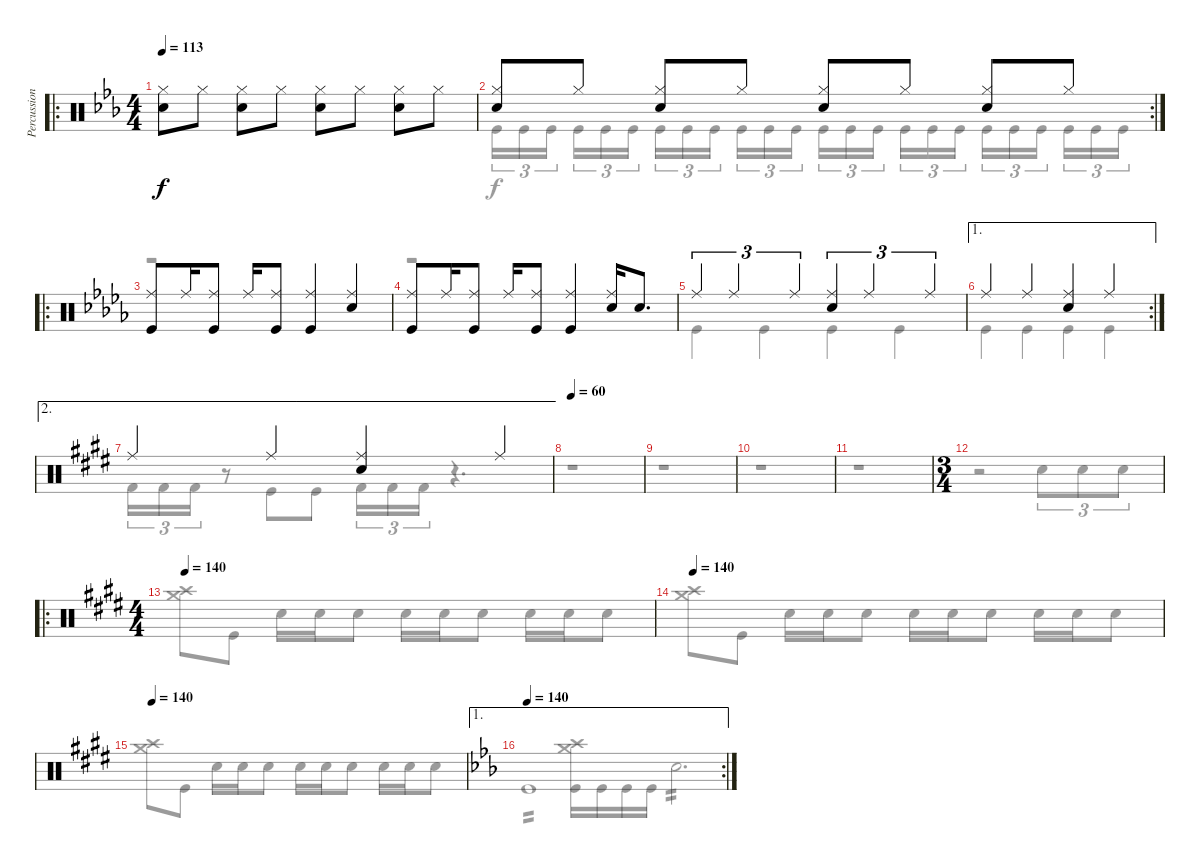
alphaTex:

\track ("Percussion" "Percussion") {instrument percussion}
\staff {score}
\articulation defaults
\voice
\ro
\ts (4 4)
\tempo 113
\clef neutral
\ks cminor
("Hi-Hat (closed)" "Electric Snare (hit)").8{dy f} "Hi-Hat (closed)".8 ("Hi-Hat (closed)" "Electric Snare (hit)").8 "Hi-Hat (closed)".8 ("Hi-Hat (closed)" "Electric Snare (hit)").8 "Hi-Hat (closed)".8 ("Hi-Hat (closed)" "Electric Snare (hit)").8 "Hi-Hat (closed)".8 |
\rc 2
("Hi-Hat (closed)" "Electric Snare (hit)").8 "Hi-Hat (closed)".8 ("Hi-Hat (closed)" "Electric Snare (hit)").8 "Hi-Hat (closed)".8 ("Hi-Hat (closed)" "Electric Snare (hit)").8 "Hi-Hat (closed)".8 ("Hi-Hat (closed)" "Electric Snare (hit)").8 "Hi-Hat (closed)".8 |
\ro
\ks db
("Ride (middle)" "Kick (hit)").8 "Ride (middle)".16 ("Ride (middle)" "Kick (hit)").8 "Ride (middle)".16 ("Ride (middle)" "Kick (hit)").8 ("Ride (middle)" "Kick (hit)").4 ("Ride (middle)" "Electric Snare (hit)").4 |
("Ride (middle)" "Kick (hit)").8 "Ride (middle)".16 ("Ride (middle)" "Kick (hit)").8 "Ride (middle)".16 ("Ride (middle)" "Kick (hit)").8 ("Ride (middle)" "Kick (hit)").4 ("Ride (middle)" "Electric Snare (hit)").16 "Electric Snare (hit)".8{d} |
"Ride (middle)".4{tu (3 2)} "Ride (middle)".4{tu (3 2)} "Ride (middle)".4{tu (3 2)} ("Ride (middle)" "Snare (hit) 2").4{tu (3 2)} "Ride (middle)".4{tu (3 2)} "Ride (middle)".4{tu (3 2)} |
\ae 1
\rc 2 "Ride (middle)".4 "Ride (middle)".4
("Ride (middle)" "Snare (hit) 2").4 "Ride (middle)".4 |
\ae 2
\ks c#minor "Ride (middle)".4 "Ride (middle)".4
("Ride (middle)" "Snare (hit) 2").4 "Ride (middle)".4 |
\tempo 60
|
|
|
|
\ts (3 4)
|
\ro
\ts (4 4)
\tempo 140
|
\tempo 140
|
\tempo 140
|
\ae 1
\rc 2
\tempo 140
\voice
\clef neutral
\ottava regular
\simile none
\ks cminor "Kick (hit)".1{tp 2 dy f}
|
"Kick (hit)".16{tu (3 2)} "Kick (hit)".16{tu (3 2)} "Kick (hit)".16{tu (3 2) beam splitsecondary} "Kick (hit)".16{tu (3 2)} "Kick (hit)".16{tu (3 2)} "Kick (hit)".16{tu (3 2)} "Kick (hit)".16{tu (3 2)} "Kick (hit)".16{tu (3 2)} "Kick (hit)".16{tu (3 2) beam splitsecondary} "Kick (hit)".16{tu (3 2)} "Kick (hit)".16{tu (3 2)} "Kick (hit)".16{tu (3 2)} "Kick (hit)".16{tu (3 2)} "Kick (hit)".16{tu (3 2)} "Kick (hit)".16{tu (3 2) beam splitsecondary} "Kick (hit)".16{tu (3 2)} "Kick (hit)".16{tu (3 2)} "Kick (hit)".16{tu (3 2)} "Kick (hit)".16{tu (3 2)} "Kick (hit)".16{tu (3 2)} "Kick (hit)".16{tu (3 2) beam splitsecondary} "Kick (hit)".16{tu (3 2)} "Kick (hit)".16{tu (3 2)} "Kick (hit)".16{tu (3 2)} |
\ks db
r.1 |
r.1 |
"Kick (hit)".4 "Kick (hit)".4 "Kick (hit)".4 "Kick (hit)".4 |
"Kick (hit)".4 "Kick (hit)".4 "Kick (hit)".4 "Kick (hit)".4 |
\ks c#minor "Kick (hit) 2".16{tu (3 2)} "Kick (hit) 2".16{tu (3 2)} "Kick (hit) 2".16{tu (3 2)}
r.8 "Kick (hit)".8 "Kick (hit)".8 "Kick (hit) 2".16{tu (3 2)} "Kick (hit) 2".16{tu (3 2)} "Kick (hit) 2".16{tu (3 2)} r.4{d} |
r.1 |
r.1 |
r.1 |
r.1 |
r.2 "Electric Snare (hit)".8{tu (3 2)} "Electric Snare (hit)".8{tu (3 2)} "Electric Snare (hit)".8{tu (3 2)} |
("Crash high (hit)" "Crash medium (hit)").8 "Kick (hit)".8 "Electric Snare (hit)".16 "Electric Snare (hit)".16 "Electric Snare (hit)".8 "Electric Snare (hit)".16 "Electric Snare (hit)".16 "Electric Snare (hit)".8 "Electric Snare (hit)".16 "Electric Snare (hit)".16 "Electric Snare (hit)".8 |
("Crash high (hit)" "Crash medium (hit)").8 "Kick (hit)".8 "Electric Snare (hit)".16 "Electric Snare (hit)".16 "Electric Snare (hit)".8 "Electric Snare (hit)".16 "Electric Snare (hit)".16 "Electric Snare (hit)".8 "Electric Snare (hit)".16 "Electric Snare (hit)".16 "Electric Snare (hit)".8 |
("Crash high (hit)" "Crash medium (hit)").8 "Kick (hit)".8 "Electric Snare (hit)".16 "Electric Snare (hit)".16 "Electric Snare (hit)".8 "Electric Snare (hit)".16 "Electric Snare (hit)".16 "Electric Snare (hit)".8 "Electric Snare (hit)".16 "Electric Snare (hit)".16 "Electric Snare (hit)".8 |
("Crash high (hit)" "Crash medium (hit)" "Kick (hit)").16 "Kick (hit)".16 "Kick (hit)".16 "Kick (hit)".16 "Electric Snare (hit)".2{d tp 2}
